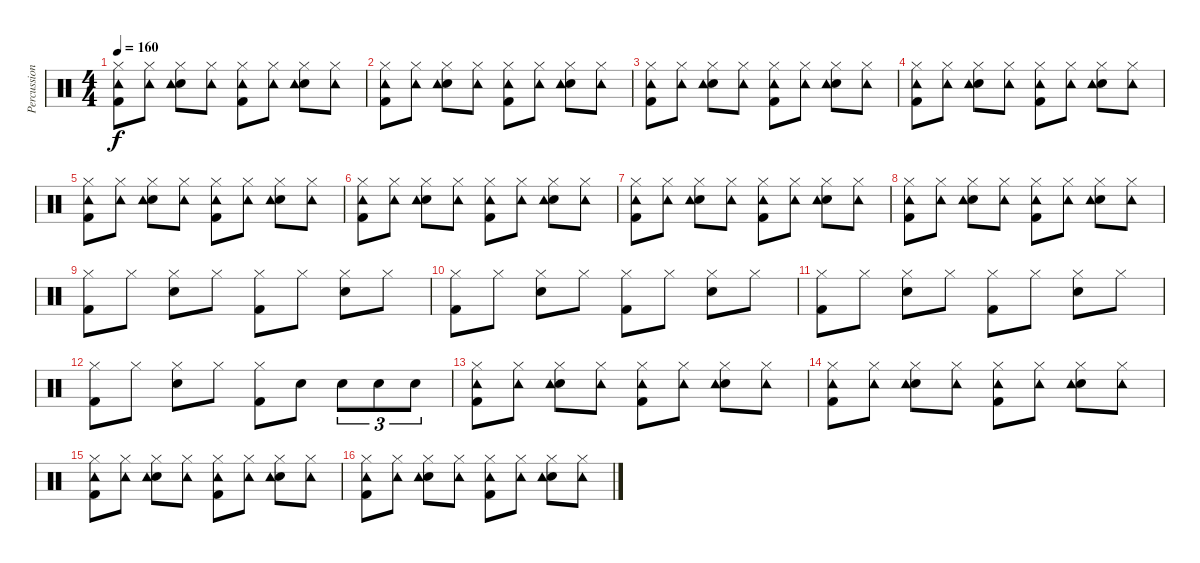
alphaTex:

\track ("Percussion" "Percussion") {instrument percussion}
\staff {score}
\articulation defaults
\ts (4 4)
\tempo 160
\clef neutral
\ks c
("Hi-Hat (closed)" "Tambourine (hit)" "Kick (hit) 2").8{dy f} ("Hi-Hat (closed)" "Tambourine (hit)").8 ("Hi-Hat (closed)" "Snare (hit) 2" "Tambourine (hit)").8 ("Hi-Hat (closed)" "Tambourine (hit)").8 ("Hi-Hat (closed)" "Tambourine (hit)" "Kick (hit) 2").8 ("Hi-Hat (closed)" "Tambourine (hit)").8 ("Hi-Hat (closed)" "Snare (hit) 2" "Tambourine (hit)").8 ("Hi-Hat (closed)" "Tambourine (hit)").8 |
("Hi-Hat (closed)" "Tambourine (hit)" "Kick (hit) 2").8 ("Hi-Hat (closed)" "Tambourine (hit)").8 ("Hi-Hat (closed)" "Snare (hit) 2" "Tambourine (hit)").8 ("Hi-Hat (closed)" "Tambourine (hit)").8 ("Hi-Hat (closed)" "Tambourine (hit)" "Kick (hit) 2").8 ("Hi-Hat (closed)" "Tambourine (hit)").8 ("Hi-Hat (closed)" "Snare (hit) 2" "Tambourine (hit)").8 ("Hi-Hat (closed)" "Tambourine (hit)").8 |
("Hi-Hat (closed)" "Tambourine (hit)" "Kick (hit) 2").8 ("Hi-Hat (closed)" "Tambourine (hit)").8 ("Hi-Hat (closed)" "Snare (hit) 2" "Tambourine (hit)").8 ("Hi-Hat (closed)" "Tambourine (hit)").8 ("Hi-Hat (closed)" "Tambourine (hit)" "Kick (hit) 2").8 ("Hi-Hat (closed)" "Tambourine (hit)").8 ("Hi-Hat (closed)" "Snare (hit) 2" "Tambourine (hit)").8 ("Hi-Hat (closed)" "Tambourine (hit)").8 |
("Hi-Hat (closed)" "Tambourine (hit)" "Kick (hit) 2").8 ("Hi-Hat (closed)" "Tambourine (hit)").8 ("Hi-Hat (closed)" "Snare (hit) 2" "Tambourine (hit)").8 ("Hi-Hat (closed)" "Tambourine (hit)").8 ("Hi-Hat (closed)" "Tambourine (hit)" "Kick (hit) 2").8 ("Hi-Hat (closed)" "Tambourine (hit)").8 ("Hi-Hat (closed)" "Snare (hit) 2" "Tambourine (hit)").8 ("Hi-Hat (closed)" "Tambourine (hit)").8 |
("Hi-Hat (closed)" "Tambourine (hit)" "Kick (hit) 2").8 ("Hi-Hat (closed)" "Tambourine (hit)").8 ("Hi-Hat (closed)" "Snare (hit) 2" "Tambourine (hit)").8 ("Hi-Hat (closed)" "Tambourine (hit)").8 ("Hi-Hat (closed)" "Tambourine (hit)" "Kick (hit) 2").8 ("Hi-Hat (closed)" "Tambourine (hit)").8 ("Hi-Hat (closed)" "Snare (hit) 2" "Tambourine (hit)").8 ("Hi-Hat (closed)" "Tambourine (hit)").8 |
("Hi-Hat (closed)" "Tambourine (hit)" "Kick (hit) 2").8 ("Hi-Hat (closed)" "Tambourine (hit)").8 ("Hi-Hat (closed)" "Snare (hit) 2" "Tambourine (hit)").8 ("Hi-Hat (closed)" "Tambourine (hit)").8 ("Hi-Hat (closed)" "Tambourine (hit)" "Kick (hit) 2").8 ("Hi-Hat (closed)" "Tambourine (hit)").8 ("Hi-Hat (closed)" "Snare (hit) 2" "Tambourine (hit)").8 ("Hi-Hat (closed)" "Tambourine (hit)").8 |
("Hi-Hat (closed)" "Tambourine (hit)" "Kick (hit) 2").8 ("Hi-Hat (closed)" "Tambourine (hit)").8 ("Hi-Hat (closed)" "Snare (hit) 2" "Tambourine (hit)").8 ("Hi-Hat (closed)" "Tambourine (hit)").8 ("Hi-Hat (closed)" "Tambourine (hit)" "Kick (hit) 2").8 ("Hi-Hat (closed)" "Tambourine (hit)").8 ("Hi-Hat (closed)" "Snare (hit) 2" "Tambourine (hit)").8 ("Hi-Hat (closed)" "Tambourine (hit)").8 |
("Hi-Hat (closed)" "Tambourine (hit)" "Kick (hit) 2").8 ("Hi-Hat (closed)" "Tambourine (hit)").8 ("Hi-Hat (closed)" "Snare (hit) 2" "Tambourine (hit)").8 ("Hi-Hat (closed)" "Tambourine (hit)").8 ("Hi-Hat (closed)" "Tambourine (hit)" "Kick (hit) 2").8 ("Hi-Hat (closed)" "Tambourine (hit)").8 ("Hi-Hat (closed)" "Snare (hit) 2" "Tambourine (hit)").8 ("Hi-Hat (closed)" "Tambourine (hit)").8 |
("Hi-Hat (closed)" "Kick (hit) 2").8 "Hi-Hat (closed)".8 ("Hi-Hat (closed)" "Snare (hit) 2").8 "Hi-Hat (closed)".8 ("Hi-Hat (closed)" "Kick (hit) 2").8 "Hi-Hat (closed)".8 ("Hi-Hat (closed)" "Snare (hit) 2").8 "Hi-Hat (closed)".8 |
("Hi-Hat (closed)" "Kick (hit) 2").8 "Hi-Hat (closed)".8 ("Hi-Hat (closed)" "Snare (hit) 2").8 "Hi-Hat (closed)".8 ("Hi-Hat (closed)" "Kick (hit) 2").8 "Hi-Hat (closed)".8 ("Hi-Hat (closed)" "Snare (hit) 2").8 "Hi-Hat (closed)".8 |
("Hi-Hat (closed)" "Kick (hit) 2").8 "Hi-Hat (closed)".8 ("Hi-Hat (closed)" "Snare (hit) 2").8 "Hi-Hat (closed)".8 ("Hi-Hat (closed)" "Kick (hit) 2").8 "Hi-Hat (closed)".8 ("Hi-Hat (closed)" "Snare (hit) 2").8 "Hi-Hat (closed)".8 |
("Hi-Hat (closed)" "Kick (hit) 2").8 "Hi-Hat (closed)".8 ("Hi-Hat (closed)" "Snare (hit) 2").8 "Hi-Hat (closed)".8 ("Hi-Hat (closed)" "Kick (hit) 2").8 "Snare (hit) 2".8 "Snare (hit) 2".8{tu (3 2)} "Snare (hit) 2".8{tu (3 2)} "Snare (hit) 2".8{tu (3 2)} |
("Hi-Hat (closed)" "Tambourine (hit)" "Kick (hit) 2").8 ("Hi-Hat (closed)" "Tambourine (hit)").8 ("Hi-Hat (closed)" "Snare (hit) 2" "Tambourine (hit)").8 ("Hi-Hat (closed)" "Tambourine (hit)").8 ("Hi-Hat (closed)" "Tambourine (hit)" "Kick (hit) 2").8 ("Hi-Hat (closed)" "Tambourine (hit)").8 ("Hi-Hat (closed)" "Snare (hit) 2" "Tambourine (hit)").8 ("Hi-Hat (closed)" "Tambourine (hit)").8 |
("Hi-Hat (closed)" "Tambourine (hit)" "Kick (hit) 2").8 ("Hi-Hat (closed)" "Tambourine (hit)").8 ("Hi-Hat (closed)" "Snare (hit) 2" "Tambourine (hit)").8 ("Hi-Hat (closed)" "Tambourine (hit)").8 ("Hi-Hat (closed)" "Tambourine (hit)" "Kick (hit) 2").8 ("Hi-Hat (closed)" "Tambourine (hit)").8 ("Hi-Hat (closed)" "Snare (hit) 2" "Tambourine (hit)").8 ("Hi-Hat (closed)" "Tambourine (hit)").8 |
("Hi-Hat (closed)" "Tambourine (hit)" "Kick (hit) 2").8 ("Hi-Hat (closed)" "Tambourine (hit)").8 ("Hi-Hat (closed)" "Snare (hit) 2" "Tambourine (hit)").8 ("Hi-Hat (closed)" "Tambourine (hit)").8 ("Hi-Hat (closed)" "Tambourine (hit)" "Kick (hit) 2").8 ("Hi-Hat (closed)" "Tambourine (hit)").8 ("Hi-Hat (closed)" "Snare (hit) 2" "Tambourine (hit)").8 ("Hi-Hat (closed)" "Tambourine (hit)").8 |
("Hi-Hat (closed)" "Tambourine (hit)" "Kick (hit) 2").8 ("Hi-Hat (closed)" "Tambourine (hit)").8 ("Hi-Hat (closed)" "Snare (hit) 2" "Tambourine (hit)").8 ("Hi-Hat (closed)" "Tambourine (hit)").8 ("Hi-Hat (closed)" "Tambourine (hit)" "Kick (hit) 2").8 ("Hi-Hat (closed)" "Tambourine (hit)").8 ("Hi-Hat (closed)" "Snare (hit) 2" "Tambourine (hit)").8 ("Hi-Hat (closed)" "Tambourine (hit)").8
